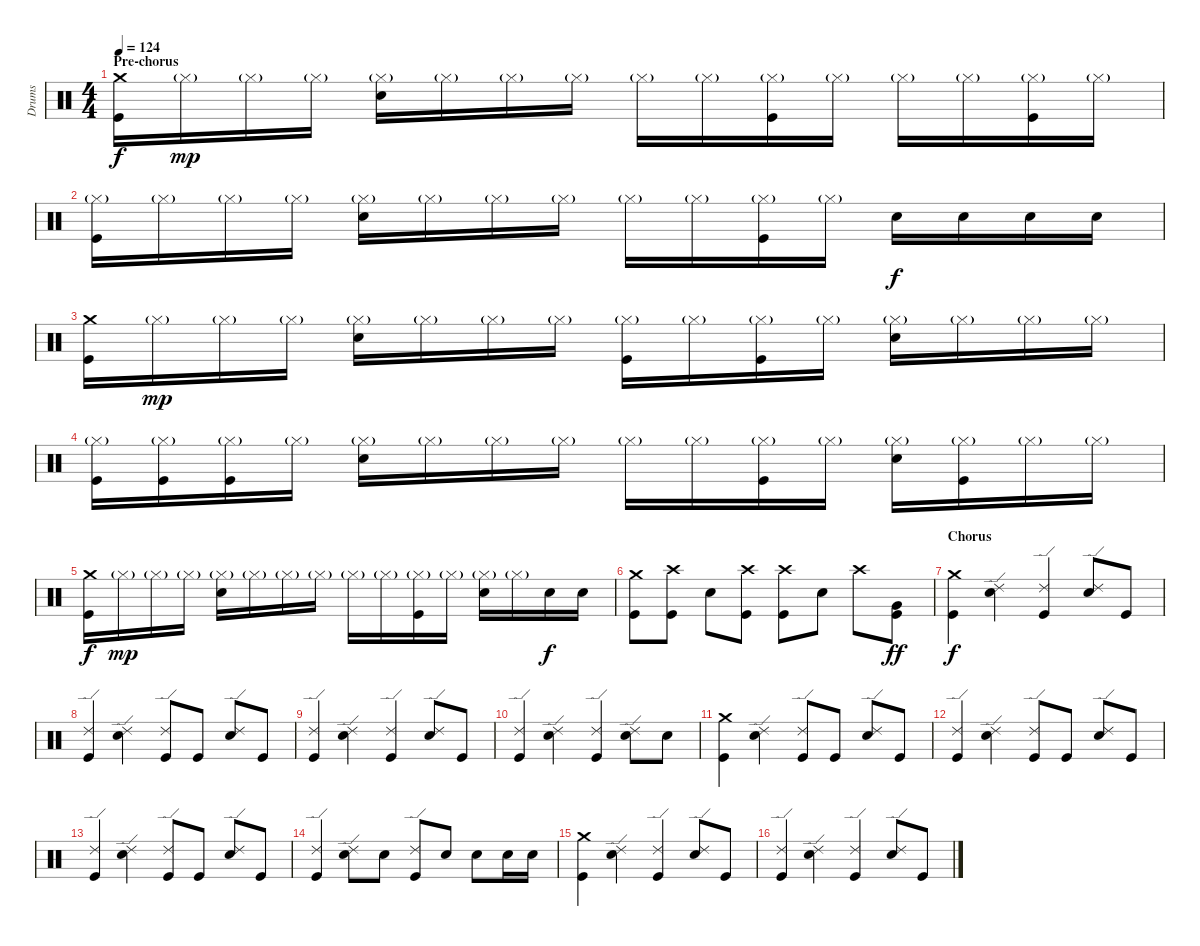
\track ("Drums" "Drums") {instrument percussion}
\staff {score}
\articulation defaults
\ts (4 4)
\section ("" "Pre-chorus")
\tempo 124
\clef neutral
\ks c
("Crash medium (hit)" "Kick (hit)").16{dy f} "Hi-Hat (closed)"{g}.16{dy mp} "Hi-Hat (closed)"{g}.16 "Hi-Hat (closed)"{g}.16 ("Hi-Hat (closed)"{g} "Snare (hit) 2").16 "Hi-Hat (closed)"{g}.16 "Hi-Hat (closed)"{g}.16 "Hi-Hat (closed)"{g}.16 "Hi-Hat (closed)"{g}.16 "Hi-Hat (closed)"{g}.16 ("Hi-Hat (closed)"{g} "Kick (hit)").16 "Hi-Hat (closed)"{g}.16 "Hi-Hat (closed)"{g}.16 "Hi-Hat (closed)"{g}.16 ("Hi-Hat (closed)"{g} "Kick (hit)").16 "Hi-Hat (closed)"{g}.16 |
("Hi-Hat (closed)"{g} "Kick (hit)").16 "Hi-Hat (closed)"{g}.16 "Hi-Hat (closed)"{g}.16 "Hi-Hat (closed)"{g}.16 ("Hi-Hat (closed)"{g} "Snare (hit) 2").16 "Hi-Hat (closed)"{g}.16 "Hi-Hat (closed)"{g}.16 "Hi-Hat (closed)"{g}.16 "Hi-Hat (closed)"{g}.16 "Hi-Hat (closed)"{g}.16 ("Hi-Hat (closed)"{g} "Kick (hit)").16 "Hi-Hat (closed)"{g}.16 "Snare (hit) 2".16{dy f} "Snare (hit) 2".16 "Snare (hit) 2".16 "Snare (hit) 2".16 |
("Crash medium (hit)" "Kick (hit)").16 "Hi-Hat (closed)"{g}.16{dy mp} "Hi-Hat (closed)"{g}.16 "Hi-Hat (closed)"{g}.16 ("Hi-Hat (closed)"{g} "Snare (hit) 2").16 "Hi-Hat (closed)"{g}.16 "Hi-Hat (closed)"{g}.16 "Hi-Hat (closed)"{g}.16 ("Hi-Hat (closed)"{g} "Kick (hit)").16 "Hi-Hat (closed)"{g}.16 ("Hi-Hat (closed)"{g} "Kick (hit)").16 "Hi-Hat (closed)"{g}.16 ("Hi-Hat (closed)"{g} "Snare (hit) 2").16 "Hi-Hat (closed)"{g}.16 "Hi-Hat (closed)"{g}.16 "Hi-Hat (closed)"{g}.16 |
("Hi-Hat (closed)"{g} "Kick (hit)").16 ("Hi-Hat (closed)"{g} "Kick (hit)").16 ("Hi-Hat (closed)"{g} "Kick (hit)").16 "Hi-Hat (closed)"{g}.16 ("Hi-Hat (closed)"{g} "Snare (hit) 2").16 "Hi-Hat (closed)"{g}.16 "Hi-Hat (closed)"{g}.16 "Hi-Hat (closed)"{g}.16 "Hi-Hat (closed)"{g}.16 "Hi-Hat (closed)"{g}.16 ("Hi-Hat (closed)"{g} "Kick (hit)").16 "Hi-Hat (closed)"{g}.16 ("Hi-Hat (closed)"{g} "Snare (hit) 2").16 ("Hi-Hat (closed)"{g} "Kick (hit)").16 "Hi-Hat (closed)"{g}.16 "Hi-Hat (closed)"{g}.16 |
("Crash medium (hit)" "Kick (hit)").16{dy f} "Hi-Hat (closed)"{g}.16{dy mp} "Hi-Hat (closed)"{g}.16 "Hi-Hat (closed)"{g}.16 ("Hi-Hat (closed)"{g} "Snare (hit) 2").16 "Hi-Hat (closed)"{g}.16 "Hi-Hat (closed)"{g}.16 "Hi-Hat (closed)"{g}.16 "Hi-Hat (closed)"{g}.16 "Hi-Hat (closed)"{g}.16 ("Hi-Hat (closed)"{g} "Kick (hit)").16 "Hi-Hat (closed)"{g}.16 ("Hi-Hat (closed)"{g} "Snare (hit) 2").16 "Hi-Hat (closed)"{g}.16 "Snare (hit) 2".16{dy f} "Snare (hit) 2".16 |
("Crash medium (hit)" "Kick (hit)").8 ("Crash high (hit)" "Kick (hit)").8 "Snare (hit) 2".8 ("Crash high (hit)" "Kick (hit)").8 ("Crash high (hit)" "Kick (hit)").8 "Snare (hit) 2".8 "Crash high (hit)".8 ("Very Low Tom (hit)" "Kick (hit)").8{dy ff} |
\section ("" "Chorus")
("Crash medium (hit)" "Kick (hit)").4{dy f} ("Ride (edge) 2" "Snare (hit) 2").4 ("Ride (edge) 2" "Kick (hit)").4 ("Ride (edge) 2" "Snare (hit) 2").8 "Kick (hit)".8 |
("Ride (edge) 2" "Kick (hit)").4 ("Ride (edge) 2" "Snare (hit) 2").4 ("Ride (edge) 2" "Kick (hit)").8 "Kick (hit)".8 ("Ride (edge) 2" "Snare (hit) 2").8 "Kick (hit)".8 |
("Ride (edge) 2" "Kick (hit)").4 ("Ride (edge) 2" "Snare (hit) 2").4 ("Ride (edge) 2" "Kick (hit)").4 ("Ride (edge) 2" "Snare (hit) 2").8 "Kick (hit)".8 |
("Ride (edge) 2" "Kick (hit)").4 ("Ride (edge) 2" "Snare (hit) 2").4 ("Ride (edge) 2" "Kick (hit)").4 ("Ride (edge) 2" "Snare (hit) 2").8 "Snare (hit) 2".8 |
("Crash medium (hit)" "Kick (hit)").4 ("Ride (edge) 2" "Snare (hit) 2").4 ("Ride (edge) 2" "Kick (hit)").8 "Kick (hit)".8 ("Ride (edge) 2" "Snare (hit) 2").8 "Kick (hit)".8 |
("Ride (edge) 2" "Kick (hit)").4 ("Ride (edge) 2" "Snare (hit) 2").4 ("Ride (edge) 2" "Kick (hit)").8 "Kick (hit)".8 ("Ride (edge) 2" "Snare (hit) 2").8 "Kick (hit)".8 |
("Ride (edge) 2" "Kick (hit)").4 ("Ride (edge) 2" "Snare (hit) 2").4 ("Ride (edge) 2" "Kick (hit)").8 "Kick (hit)".8 ("Ride (edge) 2" "Snare (hit) 2").8 "Kick (hit)".8 |
("Ride (edge) 2" "Kick (hit)").4 ("Ride (edge) 2" "Snare (hit) 2").8 "Snare (hit) 2".8 ("Ride (edge) 2" "Kick (hit)").8 "Snare (hit) 2".8 "Snare (hit) 2".8 "Snare (hit) 2".16 "Snare (hit) 2".16 |
("Crash medium (hit)" "Kick (hit)").4 ("Ride (edge) 2" "Snare (hit) 2").4 ("Ride (edge) 2" "Kick (hit)").4 ("Ride (edge) 2" "Snare (hit) 2").8 "Kick (hit)".8 |
("Ride (edge) 2" "Kick (hit)").4 ("Ride (edge) 2" "Snare (hit) 2").4 ("Ride (edge) 2" "Kick (hit)").4 ("Ride (edge) 2" "Snare (hit) 2").8 "Kick (hit)".8
